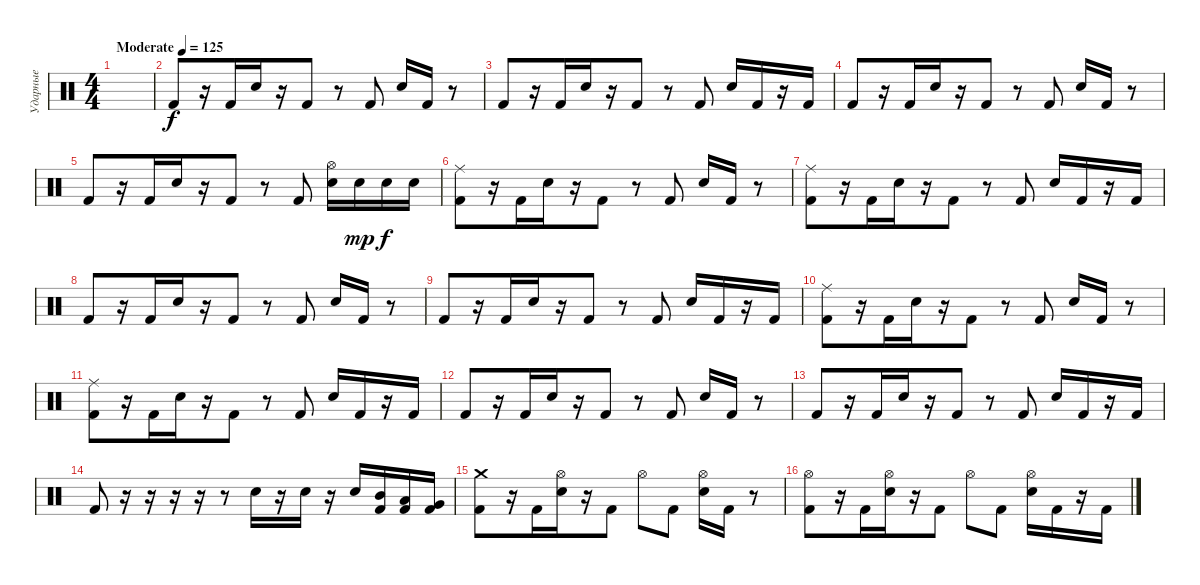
\track ("Ударные" "Ударные") {instrument percussion}
\staff {score}
\articulation defaults
\ts (4 4)
\tempo (125 "Moderate")
\clef neutral
\ks c
|
"Kick (hit) 2".8 r.16 "Kick (hit) 2".16{beam merge} "Electric Snare (hit)".16 r.16 "Kick (hit) 2".8 r.8 "Kick (hit) 2".8 "Electric Snare (hit)".16 "Kick (hit) 2".16 r.8 |
"Kick (hit) 2".8 r.16 "Kick (hit) 2".16{beam merge} "Electric Snare (hit)".16 r.16 "Kick (hit) 2".8 r.8 "Kick (hit) 2".8 "Electric Snare (hit)".16 "Kick (hit) 2".16 r.16 "Kick (hit) 2".16 |
"Kick (hit) 2".8 r.16 "Kick (hit) 2".16{beam merge} "Electric Snare (hit)".16 r.16 "Kick (hit) 2".8 r.8 "Kick (hit) 2".8 "Electric Snare (hit)".16 "Kick (hit) 2".16 r.8 |
"Kick (hit) 2".8 r.16 "Kick (hit) 2".16{beam merge} "Electric Snare (hit)".16 r.16 "Kick (hit) 2".8 r.8 "Kick (hit) 2".8 ("Hi-Hat (open)" "Electric Snare (hit)").16 "Electric Snare (hit)".16{dy mp} "Electric Snare (hit)".16{dy f} "Electric Snare (hit)".16 |
("Ride (middle)" "Kick (hit) 2").8 r.16 "Kick (hit) 2".16{beam merge} "Electric Snare (hit)".16 r.16 "Kick (hit) 2".8 r.8 "Kick (hit) 2".8 "Electric Snare (hit)".16 "Kick (hit) 2".16 r.8 |
("Ride (middle)" "Kick (hit) 2").8 r.16 "Kick (hit) 2".16{beam merge} "Electric Snare (hit)".16 r.16 "Kick (hit) 2".8 r.8 "Kick (hit) 2".8 "Electric Snare (hit)".16 "Kick (hit) 2".16 r.16 "Kick (hit) 2".16 |
"Kick (hit) 2".8 r.16 "Kick (hit) 2".16{beam merge} "Electric Snare (hit)".16 r.16 "Kick (hit) 2".8 r.8 "Kick (hit) 2".8 "Electric Snare (hit)".16 "Kick (hit) 2".16 r.8 |
"Kick (hit) 2".8 r.16 "Kick (hit) 2".16{beam merge} "Electric Snare (hit)".16 r.16 "Kick (hit) 2".8 r.8 "Kick (hit) 2".8 "Electric Snare (hit)".16 "Kick (hit) 2".16 r.16 "Kick (hit) 2".16 |
("Ride (middle)" "Kick (hit) 2").8 r.16 "Kick (hit) 2".16{beam merge} "Electric Snare (hit)".16 r.16 "Kick (hit) 2".8 r.8 "Kick (hit) 2".8 "Electric Snare (hit)".16 "Kick (hit) 2".16 r.8 |
("Ride (middle)" "Kick (hit) 2").8 r.16 "Kick (hit) 2".16{beam merge} "Electric Snare (hit)".16 r.16 "Kick (hit) 2".8 r.8 "Kick (hit) 2".8 "Electric Snare (hit)".16 "Kick (hit) 2".16 r.16 "Kick (hit) 2".16 |
"Kick (hit) 2".8 r.16 "Kick (hit) 2".16{beam merge} "Electric Snare (hit)".16 r.16 "Kick (hit) 2".8 r.8 "Kick (hit) 2".8 "Electric Snare (hit)".16 "Kick (hit) 2".16 r.8 |
"Kick (hit) 2".8 r.16 "Kick (hit) 2".16{beam merge} "Electric Snare (hit)".16 r.16 "Kick (hit) 2".8 r.8 "Kick (hit) 2".8 "Electric Snare (hit)".16 "Kick (hit) 2".16 r.16 "Kick (hit) 2".16 |
"Kick (hit) 2".8 r.16 r.16{beam merge} r.16 r.16 r.8 "Snare (hit) 2".16 r.16 "Snare (hit) 2".16 r.16 "Electric Snare (hit)".16 ("Mid Tom (hit)" "Kick (hit) 2").16 ("Low Tom (hit)" "Kick (hit) 2").16 ("Very Low Tom (hit)" "Kick (hit) 2").16 |
("Crash medium (hit)" "Kick (hit) 2").8 r.16 "Kick (hit) 2".16{beam merge} ("Hi-Hat (open)" "Electric Snare (hit)").16 r.16 "Kick (hit) 2".8 "Hi-Hat (open)".8 "Kick (hit) 2".8 ("Hi-Hat (open)" "Electric Snare (hit)").16 "Kick (hit) 2".16 r.8 |
("Hi-Hat (open)" "Kick (hit) 2").8 r.16 "Kick (hit) 2".16{beam merge} ("Hi-Hat (open)" "Electric Snare (hit)").16 r.16 "Kick (hit) 2".8 "Hi-Hat (open)".8 "Kick (hit) 2".8 ("Hi-Hat (open)" "Electric Snare (hit)").16 "Kick (hit) 2".16 r.16 "Kick (hit) 2".16
